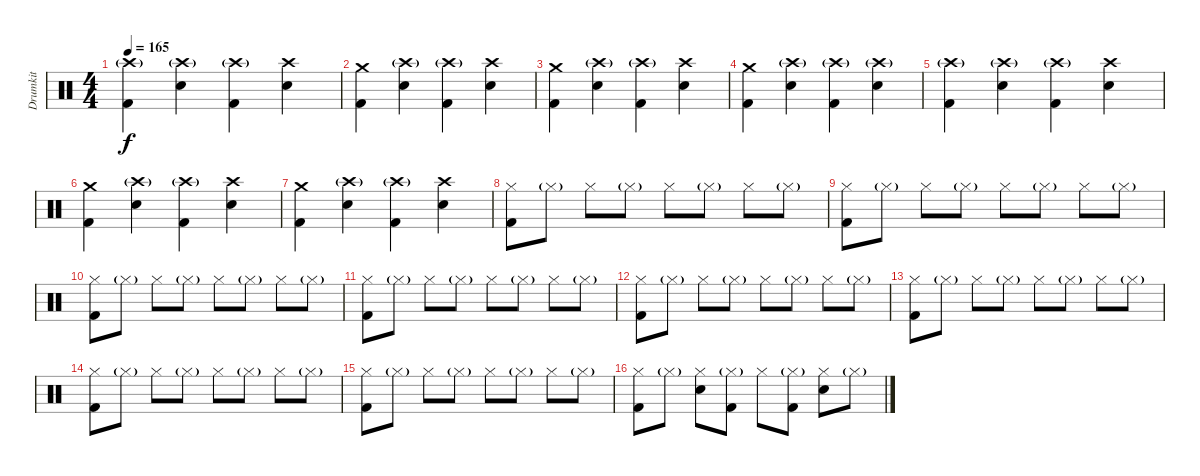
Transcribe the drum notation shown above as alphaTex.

\track ("Drumkit" "Drumkit") {instrument percussion}
\staff {score}
\articulation defaults
\ts (4 4)
\tempo 165
\clef neutral
\ks c
("Crash high (hit)"{g} "Kick (hit) 2").4{dy f} ("Crash high (hit)"{g} "Snare (hit) 2").4 ("Crash high (hit)"{g} "Kick (hit) 2").4 ("Crash high (hit)" "Snare (hit) 2").4 |
("Crash medium (hit)" "Kick (hit) 2").4 ("Crash high (hit)"{g} "Snare (hit) 2").4 ("Crash high (hit)"{g} "Kick (hit) 2").4 ("Crash high (hit)" "Snare (hit) 2").4 |
("Crash medium (hit)" "Kick (hit) 2").4 ("Crash high (hit)"{g} "Snare (hit) 2").4 ("Crash high (hit)"{g} "Kick (hit) 2").4 ("Crash high (hit)" "Snare (hit) 2").4 |
("Crash medium (hit)" "Kick (hit) 2").4 ("Crash high (hit)"{g} "Snare (hit) 2").4 ("Crash high (hit)"{g} "Kick (hit) 2").4 ("Crash high (hit)"{g} "Snare (hit) 2").4 |
("Crash high (hit)"{g} "Kick (hit) 2").4 ("Crash high (hit)"{g} "Snare (hit) 2").4 ("Crash high (hit)"{g} "Kick (hit) 2").4 ("Crash high (hit)" "Snare (hit) 2").4 |
("Crash medium (hit)" "Kick (hit) 2").4 ("Crash high (hit)"{g} "Snare (hit) 2").4 ("Crash high (hit)"{g} "Kick (hit) 2").4 ("Crash high (hit)" "Snare (hit) 2").4 |
("Crash medium (hit)" "Kick (hit) 2").4 ("Crash high (hit)"{g} "Snare (hit) 2").4 ("Crash high (hit)"{g} "Kick (hit) 2").4 ("Crash high (hit)" "Snare (hit) 2").4 |
("Hi-Hat (closed)" "Kick (hit) 2").8 "Hi-Hat (closed)"{g}.8 "Hi-Hat (closed)".8 "Hi-Hat (closed)"{g}.8 "Hi-Hat (closed)".8 "Hi-Hat (closed)"{g}.8 "Hi-Hat (closed)".8 "Hi-Hat (closed)"{g}.8 |
("Hi-Hat (closed)" "Kick (hit) 2").8 "Hi-Hat (closed)"{g}.8 "Hi-Hat (closed)".8 "Hi-Hat (closed)"{g}.8 "Hi-Hat (closed)".8 "Hi-Hat (closed)"{g}.8 "Hi-Hat (closed)".8 "Hi-Hat (closed)"{g}.8 |
("Hi-Hat (closed)" "Kick (hit) 2").8 "Hi-Hat (closed)"{g}.8 "Hi-Hat (closed)".8 "Hi-Hat (closed)"{g}.8 "Hi-Hat (closed)".8 "Hi-Hat (closed)"{g}.8 "Hi-Hat (closed)".8 "Hi-Hat (closed)"{g}.8 |
("Hi-Hat (closed)" "Kick (hit) 2").8 "Hi-Hat (closed)"{g}.8 "Hi-Hat (closed)".8 "Hi-Hat (closed)"{g}.8 "Hi-Hat (closed)".8 "Hi-Hat (closed)"{g}.8 "Hi-Hat (closed)".8 "Hi-Hat (closed)"{g}.8 |
("Hi-Hat (closed)" "Kick (hit) 2").8 "Hi-Hat (closed)"{g}.8 "Hi-Hat (closed)".8 "Hi-Hat (closed)"{g}.8 "Hi-Hat (closed)".8 "Hi-Hat (closed)"{g}.8 "Hi-Hat (closed)".8 "Hi-Hat (closed)"{g}.8 |
("Hi-Hat (closed)" "Kick (hit) 2").8 "Hi-Hat (closed)"{g}.8 "Hi-Hat (closed)".8 "Hi-Hat (closed)"{g}.8 "Hi-Hat (closed)".8 "Hi-Hat (closed)"{g}.8 "Hi-Hat (closed)".8 "Hi-Hat (closed)"{g}.8 |
("Hi-Hat (closed)" "Kick (hit) 2").8 "Hi-Hat (closed)"{g}.8 "Hi-Hat (closed)".8 "Hi-Hat (closed)"{g}.8 "Hi-Hat (closed)".8 "Hi-Hat (closed)"{g}.8 "Hi-Hat (closed)".8 "Hi-Hat (closed)"{g}.8 |
("Hi-Hat (closed)" "Kick (hit) 2").8 "Hi-Hat (closed)"{g}.8 "Hi-Hat (closed)".8 "Hi-Hat (closed)"{g}.8 "Hi-Hat (closed)".8 "Hi-Hat (closed)"{g}.8 "Hi-Hat (closed)".8 "Hi-Hat (closed)"{g}.8 |
("Hi-Hat (closed)" "Kick (hit) 2").8 "Hi-Hat (closed)"{g}.8 ("Hi-Hat (closed)" "Snare (hit) 2").8 ("Hi-Hat (closed)"{g} "Kick (hit) 2").8 "Hi-Hat (closed)".8 ("Hi-Hat (closed)"{g} "Kick (hit) 2").8 ("Hi-Hat (closed)" "Snare (hit) 2").8 "Hi-Hat (closed)"{g}.8
